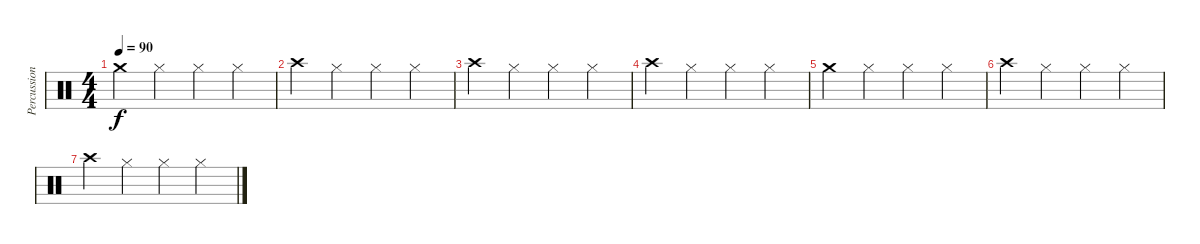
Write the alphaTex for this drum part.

\track ("Percussion" "Percussion") {instrument percussion}
\staff {score}
\articulation defaults
\ts (4 4)
\tempo 90
\clef neutral
\ks c "Crash medium (hit)".4{dy f} "Hi-Hat (closed)".4 "Hi-Hat (closed)".4 "Hi-Hat (closed)".4
|
"Crash high (hit)".4 "Hi-Hat (closed)".4 "Hi-Hat (closed)".4 "Hi-Hat (closed)".4 |
"Crash high (hit)".4 "Hi-Hat (closed)".4 "Hi-Hat (closed)".4 "Hi-Hat (closed)".4 |
"Crash high (hit)".4 "Hi-Hat (closed)".4 "Hi-Hat (closed)".4 "Hi-Hat (closed)".4 |
"Crash medium (hit)".4 "Hi-Hat (closed)".4 "Hi-Hat (closed)".4 "Hi-Hat (closed)".4 |
"Crash high (hit)".4 "Hi-Hat (closed)".4 "Hi-Hat (closed)".4 "Hi-Hat (closed)".4 |
"Crash high (hit)".4 "Hi-Hat (closed)".4 "Hi-Hat (closed)".4 "Hi-Hat (closed)".4
